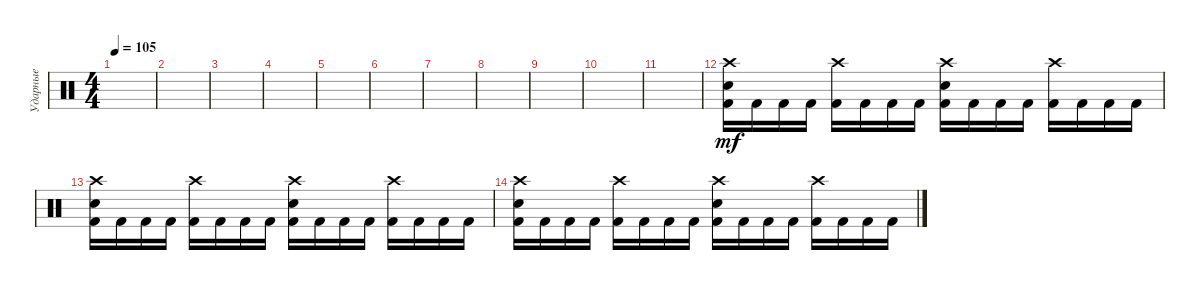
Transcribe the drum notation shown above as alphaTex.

\track ("Ударные" "Ударные") {instrument percussion}
\staff {score}
\articulation defaults
\ts (4 4)
\tempo 105
\clef neutral
\ks c
|
|
|
|
|
|
|
|
|
|
|
("Crash high (hit)" "Electric Snare (hit)" "Kick (hit) 2").16{dy mf} "Kick (hit) 2".16 "Kick (hit) 2".16 "Kick (hit) 2".16 ("Crash high (hit)" "Kick (hit) 2").16 "Kick (hit) 2".16 "Kick (hit) 2".16 "Kick (hit) 2".16 ("Crash high (hit)" "Electric Snare (hit)" "Kick (hit) 2").16 "Kick (hit) 2".16 "Kick (hit) 2".16 "Kick (hit) 2".16 ("Crash high (hit)" "Kick (hit) 2").16 "Kick (hit) 2".16 "Kick (hit) 2".16 "Kick (hit) 2".16 |
("Crash high (hit)" "Electric Snare (hit)" "Kick (hit) 2").16 "Kick (hit) 2".16 "Kick (hit) 2".16 "Kick (hit) 2".16 ("Crash high (hit)" "Kick (hit) 2").16 "Kick (hit) 2".16 "Kick (hit) 2".16 "Kick (hit) 2".16 ("Crash high (hit)" "Electric Snare (hit)" "Kick (hit) 2").16 "Kick (hit) 2".16 "Kick (hit) 2".16 "Kick (hit) 2".16 ("Crash high (hit)" "Kick (hit) 2").16 "Kick (hit) 2".16 "Kick (hit) 2".16 "Kick (hit) 2".16 |
("Crash high (hit)" "Electric Snare (hit)" "Kick (hit) 2").16 "Kick (hit) 2".16 "Kick (hit) 2".16 "Kick (hit) 2".16 ("Crash high (hit)" "Kick (hit) 2").16 "Kick (hit) 2".16 "Kick (hit) 2".16 "Kick (hit) 2".16 ("Crash high (hit)" "Electric Snare (hit)" "Kick (hit) 2").16 "Kick (hit) 2".16 "Kick (hit) 2".16 "Kick (hit) 2".16 ("Crash high (hit)" "Kick (hit) 2").16 "Kick (hit) 2".16 "Kick (hit) 2".16 "Kick (hit) 2".16
